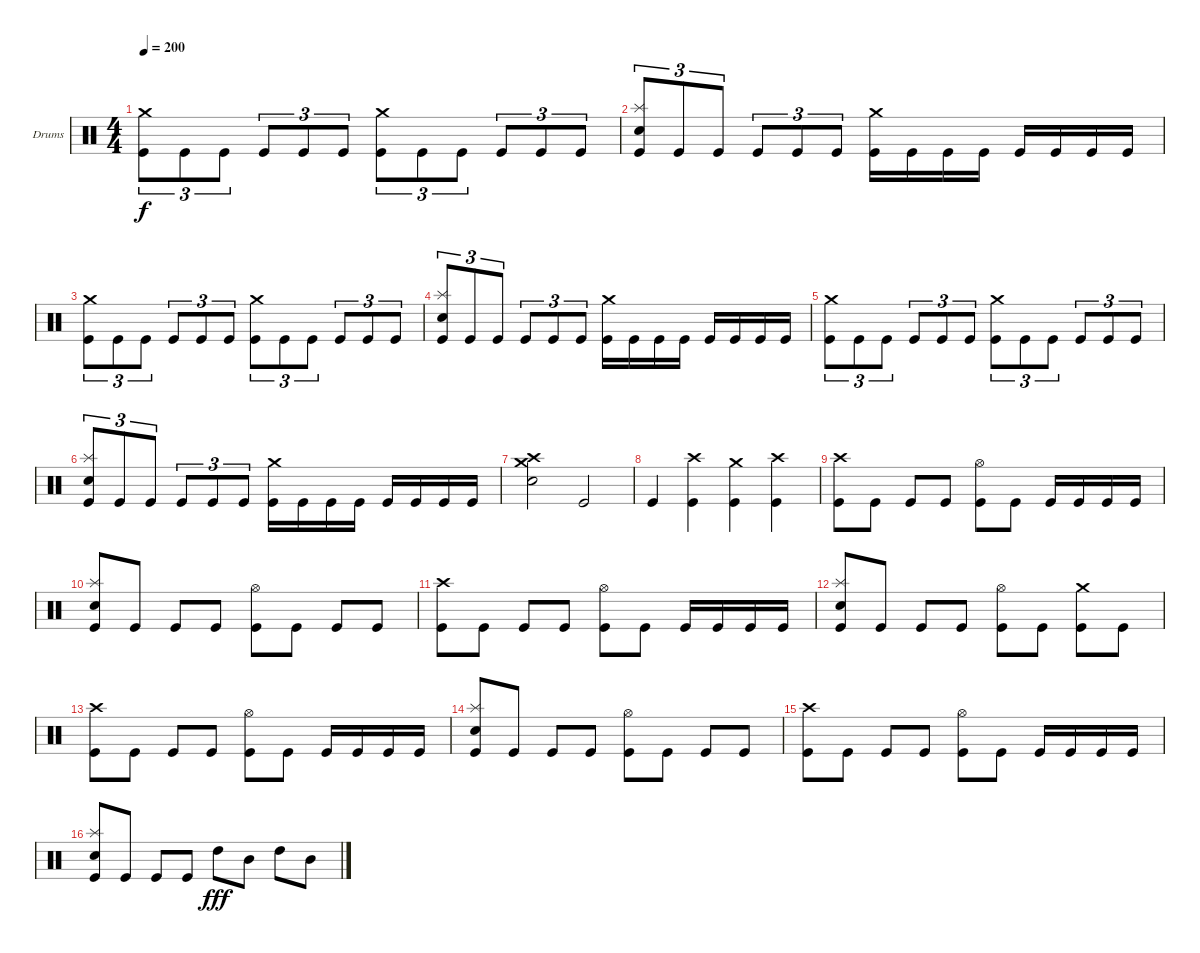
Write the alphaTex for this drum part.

\bracketExtendMode groupsimilarinstruments
\firstSystemTrackNameOrientation horizontal
\otherSystemsTrackNameOrientation horizontal
\track ("Drumkit" "Drums") {instrument percussion}
\staff {score}
\articulation defaults
\ts (4 4)
\tempo 200
\clef neutral
\scale
0.333333
\ks c
("Crash medium (hit)" "Kick (hit)").8{tu (3 2) dy f} "Kick (hit)".8{tu (3 2)} "Kick (hit)".8{tu (3 2)} "Kick (hit)".8{tu (3 2)} "Kick (hit)".8{tu (3 2)} "Kick (hit)".8{tu (3 2)} ("Crash medium (hit)" "Kick (hit)").8{tu (3 2)} "Kick (hit)".8{tu (3 2)} "Kick (hit)".8{tu (3 2)} "Kick (hit)".8{tu (3 2)} "Kick (hit)".8{tu (3 2)} "Kick (hit)".8{tu (3 2)} |
\scale
0.333333 ("Splash (hit)" "Snare (hit) 2" "Kick (hit)").8{tu (3 2)} "Kick (hit)".8{tu (3 2)} "Kick (hit)".8{tu (3 2)} "Kick (hit)".8{tu (3 2)} "Kick (hit)".8{tu (3 2)} "Kick (hit)".8{tu (3 2)} ("Crash medium (hit)" "Kick (hit)").16 "Kick (hit)".16 "Kick (hit)".16 "Kick (hit)".16 "Kick (hit)".16 "Kick (hit)".16 "Kick (hit)".16 "Kick (hit)".16 |
\scale
0.333333 ("Crash medium (hit)" "Kick (hit)").8{tu (3 2)} "Kick (hit)".8{tu (3 2)} "Kick (hit)".8{tu (3 2)} "Kick (hit)".8{tu (3 2)} "Kick (hit)".8{tu (3 2)} "Kick (hit)".8{tu (3 2)} ("Crash medium (hit)" "Kick (hit)").8{tu (3 2)} "Kick (hit)".8{tu (3 2)} "Kick (hit)".8{tu (3 2)} "Kick (hit)".8{tu (3 2)} "Kick (hit)".8{tu (3 2)} "Kick (hit)".8{tu (3 2)} |
\scale
0.333333 ("Splash (hit)" "Snare (hit) 2" "Kick (hit)").8{tu (3 2)} "Kick (hit)".8{tu (3 2)} "Kick (hit)".8{tu (3 2)} "Kick (hit)".8{tu (3 2)} "Kick (hit)".8{tu (3 2)} "Kick (hit)".8{tu (3 2)} ("Crash medium (hit)" "Kick (hit)").16 "Kick (hit)".16 "Kick (hit)".16 "Kick (hit)".16 "Kick (hit)".16 "Kick (hit)".16 "Kick (hit)".16 "Kick (hit)".16 |
\scale
0.333333 ("Crash medium (hit)" "Kick (hit)").8{tu (3 2)} "Kick (hit)".8{tu (3 2)} "Kick (hit)".8{tu (3 2)} "Kick (hit)".8{tu (3 2)} "Kick (hit)".8{tu (3 2)} "Kick (hit)".8{tu (3 2)} ("Crash medium (hit)" "Kick (hit)").8{tu (3 2)} "Kick (hit)".8{tu (3 2)} "Kick (hit)".8{tu (3 2)} "Kick (hit)".8{tu (3 2)} "Kick (hit)".8{tu (3 2)} "Kick (hit)".8{tu (3 2)} |
\scale
0.333333 ("Splash (hit)" "Snare (hit) 2" "Kick (hit)").8{tu (3 2)} "Kick (hit)".8{tu (3 2)} "Kick (hit)".8{tu (3 2)} "Kick (hit)".8{tu (3 2)} "Kick (hit)".8{tu (3 2)} "Kick (hit)".8{tu (3 2)} ("Crash medium (hit)" "Kick (hit)").16 "Kick (hit)".16 "Kick (hit)".16 "Kick (hit)".16 "Kick (hit)".16 "Kick (hit)".16 "Kick (hit)".16 "Kick (hit)".16 |
\scale
0.333333 ("Crash high (hit)" "Crash medium (hit)" "Snare (hit) 2").2 "Kick (hit)".2 |
\scale
0.333333 "Kick (hit)".4 ("Crash high (hit)" "Kick (hit)").4 ("Crash medium (hit)" "Kick (hit)").4 ("Crash high (hit)" "Kick (hit)").4 |
\scale
0.333333 ("Crash high (hit)" "Kick (hit)").8 "Kick (hit)".8 "Kick (hit)".8 "Kick (hit)".8 ("Hi-Hat (open)" "Kick (hit)").8 "Kick (hit)".8 "Kick (hit)".16 "Kick (hit)".16 "Kick (hit)".16 "Kick (hit)".16 |
\scale
0.333333 ("Splash (hit)" "Snare (hit) 2" "Kick (hit)").8 "Kick (hit)".8 "Kick (hit)".8 "Kick (hit)".8 ("Hi-Hat (open)" "Kick (hit)").8 "Kick (hit)".8 "Kick (hit)".8 "Kick (hit)".8 |
\scale
0.333333 ("Crash high (hit)" "Kick (hit)").8 "Kick (hit)".8 "Kick (hit)".8 "Kick (hit)".8 ("Hi-Hat (open)" "Kick (hit)").8 "Kick (hit)".8 "Kick (hit)".16 "Kick (hit)".16 "Kick (hit)".16 "Kick (hit)".16 |
\scale
0.333333 ("Splash (hit)" "Snare (hit) 2" "Kick (hit)").8 "Kick (hit)".8 "Kick (hit)".8 "Kick (hit)".8 ("Hi-Hat (open)" "Kick (hit)").8 "Kick (hit)".8 ("Crash medium (hit)" "Kick (hit)").8 "Kick (hit)".8 |
\scale
0.333333 ("Crash high (hit)" "Kick (hit)").8 "Kick (hit)".8 "Kick (hit)".8 "Kick (hit)".8 ("Hi-Hat (open)" "Kick (hit)").8 "Kick (hit)".8 "Kick (hit)".16 "Kick (hit)".16 "Kick (hit)".16 "Kick (hit)".16 |
\scale
0.333333 ("Splash (hit)" "Snare (hit) 2" "Kick (hit)").8 "Kick (hit)".8 "Kick (hit)".8 "Kick (hit)".8 ("Hi-Hat (open)" "Kick (hit)").8 "Kick (hit)".8 "Kick (hit)".8 "Kick (hit)".8 |
\scale
0.333333 ("Crash high (hit)" "Kick (hit)").8 "Kick (hit)".8 "Kick (hit)".8 "Kick (hit)".8 ("Hi-Hat (open)" "Kick (hit)").8 "Kick (hit)".8 "Kick (hit)".16 "Kick (hit)".16 "Kick (hit)".16 "Kick (hit)".16 |
\scale
0.333333 ("Splash (hit)" "Snare (hit) 2" "Kick (hit)").8 "Kick (hit)".8 "Kick (hit)".8 "Kick (hit)".8 "High Tom (hit)".8{dy fff} "Mid Tom (hit)".8 "High Tom (hit)".8 "Mid Tom (hit)".8
